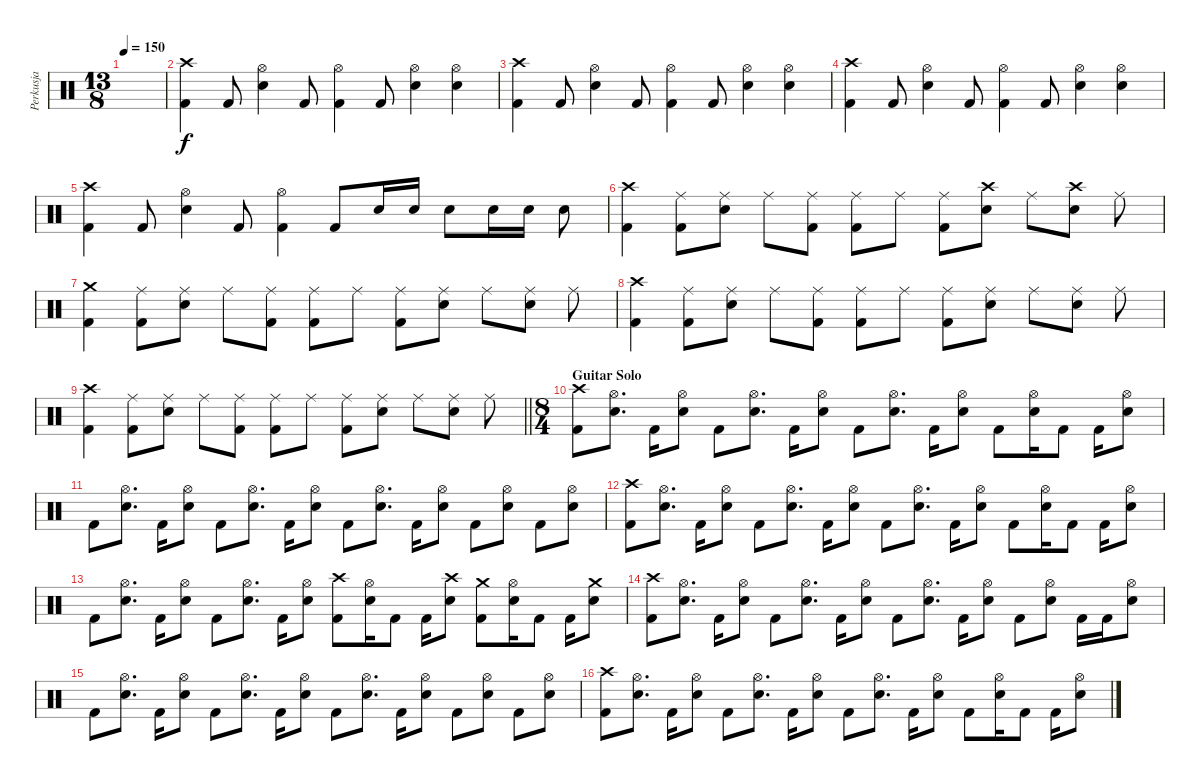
\track ("Perkusja" "Perkusja") {instrument percussion}
\staff {score}
\articulation defaults
\ts (13 8)
\tempo 150
\clef neutral
\ks c
|
("Crash high (hit)" "Kick (hit) 2").4 "Kick (hit) 2".8 ("Hi-Hat (open)" "Snare (hit) 2").4 "Kick (hit) 2".8 ("Hi-Hat (open)" "Kick (hit) 2").4 "Kick (hit) 2".8 ("Hi-Hat (open)" "Snare (hit) 2").4 ("Hi-Hat (open)" "Snare (hit) 2").4 |
("Crash high (hit)" "Kick (hit) 2").4 "Kick (hit) 2".8 ("Hi-Hat (open)" "Snare (hit) 2").4 "Kick (hit) 2".8 ("Hi-Hat (open)" "Kick (hit) 2").4 "Kick (hit) 2".8 ("Hi-Hat (open)" "Snare (hit) 2").4 ("Hi-Hat (open)" "Snare (hit) 2").4 |
("Crash high (hit)" "Kick (hit) 2").4 "Kick (hit) 2".8 ("Hi-Hat (open)" "Snare (hit) 2").4 "Kick (hit) 2".8 ("Hi-Hat (open)" "Kick (hit) 2").4 "Kick (hit) 2".8 ("Hi-Hat (open)" "Snare (hit) 2").4 ("Hi-Hat (open)" "Snare (hit) 2").4 |
("Crash high (hit)" "Kick (hit) 2").4 "Kick (hit) 2".8 ("Hi-Hat (open)" "Snare (hit) 2").4 "Kick (hit) 2".8 ("Hi-Hat (open)" "Kick (hit) 2").4 "Kick (hit) 2".8 "Snare (hit) 2".16 "Snare (hit) 2".16 "Snare (hit) 2".8 "Snare (hit) 2".16 "Snare (hit) 2".16 "Snare (hit) 2".8 |
("Crash high (hit)" "Kick (hit) 2").4 ("Ride (middle)" "Kick (hit) 2").8 ("Ride (middle)" "Snare (hit) 2").8 "Ride (middle)".8 ("Ride (middle)" "Kick (hit) 2").8 ("Ride (middle)" "Kick (hit) 2").8 "Ride (middle)".8 ("Ride (middle)" "Kick (hit) 2").8 ("Crash high (hit)" "Snare (hit) 2").8 "Ride (middle)".8 ("Crash high (hit)" "Snare (hit) 2").8 "Ride (middle)".8 |
("Crash medium (hit)" "Kick (hit) 2").4 ("Ride (middle)" "Kick (hit) 2").8 ("Ride (middle)" "Snare (hit) 2").8 "Ride (middle)".8 ("Ride (middle)" "Kick (hit) 2").8 ("Ride (middle)" "Kick (hit) 2").8 "Ride (middle)".8 ("Ride (middle)" "Kick (hit) 2").8 ("Ride (middle)" "Snare (hit) 2").8 "Ride (middle)".8 ("Ride (middle)" "Snare (hit) 2").8 "Ride (middle)".8 |
("Crash high (hit)" "Kick (hit) 2").4 ("Ride (middle)" "Kick (hit) 2").8 ("Ride (middle)" "Snare (hit) 2").8 "Ride (middle)".8 ("Ride (middle)" "Kick (hit) 2").8 ("Ride (middle)" "Kick (hit) 2").8 "Ride (middle)".8 ("Ride (middle)" "Kick (hit) 2").8 ("Ride (middle)" "Snare (hit) 2").8 "Ride (middle)".8 ("Ride (middle)" "Snare (hit) 2").8 "Ride (middle)".8 |
\barLineRight lightlight
("Crash high (hit)" "Kick (hit) 2").4 ("Ride (middle)" "Kick (hit) 2").8 ("Ride (middle)" "Snare (hit) 2").8 "Ride (middle)".8 ("Ride (middle)" "Kick (hit) 2").8 ("Ride (middle)" "Kick (hit) 2").8 "Ride (middle)".8 ("Ride (middle)" "Kick (hit) 2").8 ("Ride (middle)" "Snare (hit) 2").8 "Ride (middle)".8 ("Ride (middle)" "Snare (hit) 2").8 "Ride (middle)".8 |
\ts (8 4)
\section ("" "Guitar Solo")
("Crash high (hit)" "Kick (hit) 2").8 ("Hi-Hat (open)" "Snare (hit) 2").8{d} "Kick (hit) 2".16 ("Hi-Hat (open)" "Snare (hit) 2").8 "Kick (hit) 2".8 ("Hi-Hat (open)" "Snare (hit) 2").8{d} "Kick (hit) 2".16 ("Hi-Hat (open)" "Snare (hit) 2").8 "Kick (hit) 2".8 ("Hi-Hat (open)" "Snare (hit) 2").8{d} "Kick (hit) 2".16 ("Hi-Hat (open)" "Snare (hit) 2").8 "Kick (hit) 2".8 ("Hi-Hat (open)" "Snare (hit) 2").16 "Kick (hit) 2".8 "Kick (hit) 2".16 ("Hi-Hat (open)" "Snare (hit) 2").8 |
"Kick (hit) 2".8 ("Hi-Hat (open)" "Snare (hit) 2").8{d} "Kick (hit) 2".16 ("Hi-Hat (open)" "Snare (hit) 2").8 "Kick (hit) 2".8 ("Hi-Hat (open)" "Snare (hit) 2").8{d} "Kick (hit) 2".16 ("Hi-Hat (open)" "Snare (hit) 2").8 "Kick (hit) 2".8 ("Hi-Hat (open)" "Snare (hit) 2").8{d} "Kick (hit) 2".16 ("Hi-Hat (open)" "Snare (hit) 2").8 "Kick (hit) 2".8 ("Hi-Hat (open)" "Snare (hit) 2").8 "Kick (hit) 2".8 ("Hi-Hat (open)" "Snare (hit) 2").8 |
("Crash high (hit)" "Kick (hit) 2").8 ("Hi-Hat (open)" "Snare (hit) 2").8{d} "Kick (hit) 2".16 ("Hi-Hat (open)" "Snare (hit) 2").8 "Kick (hit) 2".8 ("Hi-Hat (open)" "Snare (hit) 2").8{d} "Kick (hit) 2".16 ("Hi-Hat (open)" "Snare (hit) 2").8 "Kick (hit) 2".8 ("Hi-Hat (open)" "Snare (hit) 2").8{d} "Kick (hit) 2".16 ("Hi-Hat (open)" "Snare (hit) 2").8 "Kick (hit) 2".8 ("Hi-Hat (open)" "Snare (hit) 2").16 "Kick (hit) 2".8 "Kick (hit) 2".16 ("Hi-Hat (open)" "Snare (hit) 2").8 |
"Kick (hit) 2".8 ("Hi-Hat (open)" "Snare (hit) 2").8{d} "Kick (hit) 2".16 ("Hi-Hat (open)" "Snare (hit) 2").8 "Kick (hit) 2".8 ("Hi-Hat (open)" "Snare (hit) 2").8{d} "Kick (hit) 2".16 ("Hi-Hat (open)" "Snare (hit) 2").8 ("Crash high (hit)" "Kick (hit) 2").8 ("Hi-Hat (open)" "Snare (hit) 2").16 "Kick (hit) 2".8 "Kick (hit) 2".16 ("Crash high (hit)" "Snare (hit) 2").8 ("Crash medium (hit)" "Kick (hit) 2").8 ("Hi-Hat (open)" "Snare (hit) 2").16 "Kick (hit) 2".8 "Kick (hit) 2".16 ("Crash medium (hit)" "Snare (hit) 2").8 |
("Crash high (hit)" "Kick (hit) 2").8 ("Hi-Hat (open)" "Snare (hit) 2").8{d} "Kick (hit) 2".16 ("Hi-Hat (open)" "Snare (hit) 2").8 "Kick (hit) 2".8 ("Hi-Hat (open)" "Snare (hit) 2").8{d} "Kick (hit) 2".16 ("Hi-Hat (open)" "Snare (hit) 2").8 "Kick (hit) 2".8 ("Hi-Hat (open)" "Snare (hit) 2").8{d} "Kick (hit) 2".16 ("Hi-Hat (open)" "Snare (hit) 2").8 "Kick (hit) 2".8 ("Hi-Hat (open)" "Snare (hit) 2").8 "Kick (hit) 2".16 "Kick (hit) 2".16 ("Hi-Hat (open)" "Snare (hit) 2").8 |
"Kick (hit) 2".8 ("Hi-Hat (open)" "Snare (hit) 2").8{d} "Kick (hit) 2".16 ("Hi-Hat (open)" "Snare (hit) 2").8 "Kick (hit) 2".8 ("Hi-Hat (open)" "Snare (hit) 2").8{d} "Kick (hit) 2".16 ("Hi-Hat (open)" "Snare (hit) 2").8 "Kick (hit) 2".8 ("Hi-Hat (open)" "Snare (hit) 2").8{d} "Kick (hit) 2".16 ("Hi-Hat (open)" "Snare (hit) 2").8 "Kick (hit) 2".8 ("Hi-Hat (open)" "Snare (hit) 2").8 "Kick (hit) 2".8 ("Hi-Hat (open)" "Snare (hit) 2").8 |
("Crash high (hit)" "Kick (hit) 2").8 ("Hi-Hat (open)" "Snare (hit) 2").8{d} "Kick (hit) 2".16 ("Hi-Hat (open)" "Snare (hit) 2").8 "Kick (hit) 2".8 ("Hi-Hat (open)" "Snare (hit) 2").8{d} "Kick (hit) 2".16 ("Hi-Hat (open)" "Snare (hit) 2").8 "Kick (hit) 2".8 ("Hi-Hat (open)" "Snare (hit) 2").8{d} "Kick (hit) 2".16 ("Hi-Hat (open)" "Snare (hit) 2").8 "Kick (hit) 2".8 ("Hi-Hat (open)" "Snare (hit) 2").16 "Kick (hit) 2".8 "Kick (hit) 2".16 ("Hi-Hat (open)" "Snare (hit) 2").8
